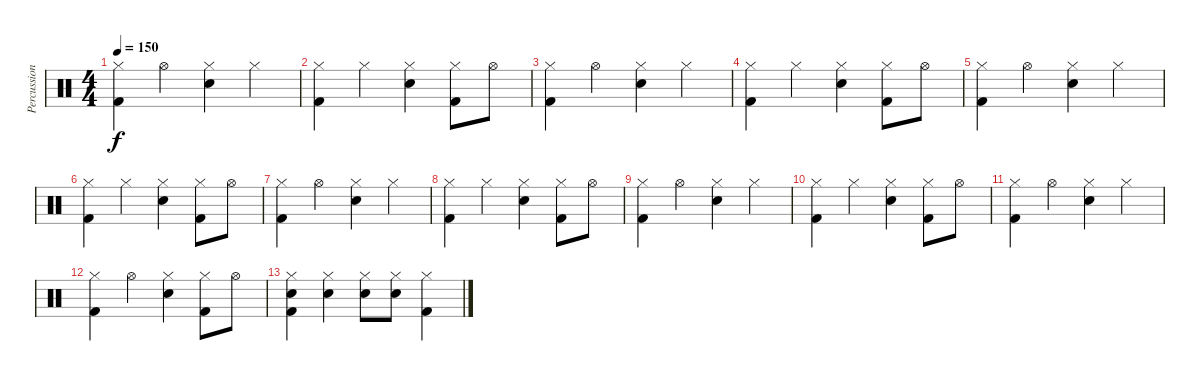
\track ("Percussion" "Percussion") {instrument percussion}
\staff {score}
\articulation defaults
\ts (4 4)
\tempo 150
\clef neutral
\ks c
("Hi-Hat (closed)" "Kick (hit) 2").4{dy f} "Hi-Hat (open)".4 ("Hi-Hat (closed)" "Snare (hit) 2").4 "Hi-Hat (closed)".4 |
("Hi-Hat (closed)" "Kick (hit) 2").4 "Hi-Hat (closed)".4 ("Hi-Hat (closed)" "Snare (hit) 2").4 ("Hi-Hat (closed)" "Kick (hit) 2").8 "Hi-Hat (open)".8 |
("Hi-Hat (closed)" "Kick (hit) 2").4 "Hi-Hat (open)".4 ("Hi-Hat (closed)" "Snare (hit) 2").4 "Hi-Hat (closed)".4 |
("Hi-Hat (closed)" "Kick (hit) 2").4 "Hi-Hat (closed)".4 ("Hi-Hat (closed)" "Snare (hit) 2").4 ("Hi-Hat (closed)" "Kick (hit) 2").8 "Hi-Hat (open)".8 |
("Hi-Hat (closed)" "Kick (hit) 2").4 "Hi-Hat (open)".4 ("Hi-Hat (closed)" "Snare (hit) 2").4 "Hi-Hat (closed)".4 |
("Hi-Hat (closed)" "Kick (hit) 2").4 "Hi-Hat (closed)".4 ("Hi-Hat (closed)" "Snare (hit) 2").4 ("Hi-Hat (closed)" "Kick (hit) 2").8 "Hi-Hat (open)".8 |
("Hi-Hat (closed)" "Kick (hit) 2").4 "Hi-Hat (open)".4 ("Hi-Hat (closed)" "Snare (hit) 2").4 "Hi-Hat (closed)".4 |
("Hi-Hat (closed)" "Kick (hit) 2").4 "Hi-Hat (closed)".4 ("Hi-Hat (closed)" "Snare (hit) 2").4 ("Hi-Hat (closed)" "Kick (hit) 2").8 "Hi-Hat (open)".8 |
("Hi-Hat (closed)" "Kick (hit) 2").4 "Hi-Hat (open)".4 ("Hi-Hat (closed)" "Snare (hit) 2").4 "Hi-Hat (closed)".4 |
("Hi-Hat (closed)" "Kick (hit) 2").4 "Hi-Hat (closed)".4 ("Hi-Hat (closed)" "Snare (hit) 2").4 ("Hi-Hat (closed)" "Kick (hit) 2").8 "Hi-Hat (open)".8 |
("Hi-Hat (closed)" "Kick (hit) 2").4 "Hi-Hat (open)".4 ("Hi-Hat (closed)" "Snare (hit) 2").4 "Hi-Hat (closed)".4 |
("Hi-Hat (closed)" "Kick (hit) 2").4 "Hi-Hat (open)".4 ("Hi-Hat (closed)" "Snare (hit) 2").4 ("Hi-Hat (closed)" "Kick (hit) 2").8 "Hi-Hat (open)".8 |
("Hi-Hat (closed)" "Snare (hit) 2" "Kick (hit) 2").4 ("Hi-Hat (closed)" "Snare (hit) 2").4 ("Hi-Hat (closed)" "Snare (hit) 2").8 ("Hi-Hat (closed)" "Snare (hit) 2").8 ("Hi-Hat (closed)" "Kick (hit) 2").4
